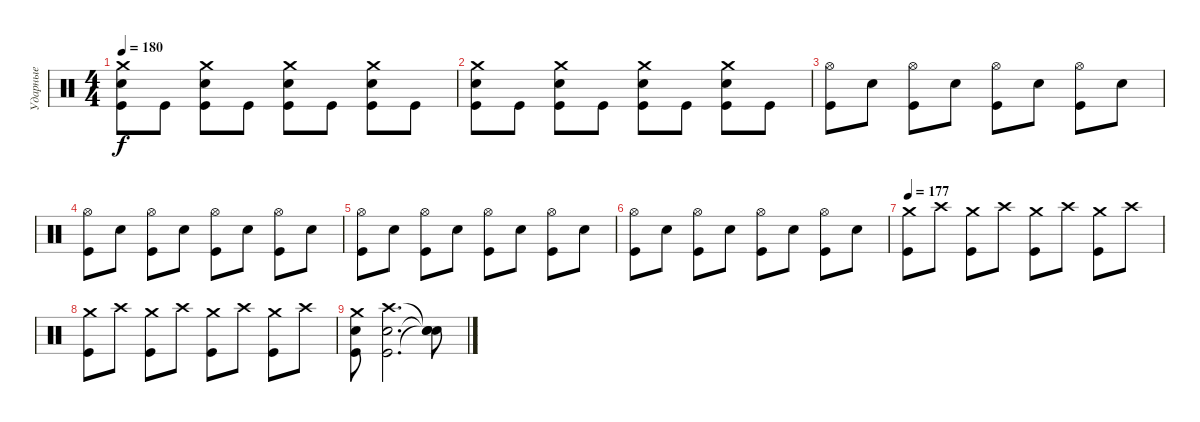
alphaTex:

\track ("Ударные" "Ударные") {instrument percussion}
\staff {score}
\articulation defaults
\ts (4 4)
\tempo 180
\clef neutral
\ks c
("Crash medium (hit)" "Snare (hit) 2" "Kick (hit)").8{dy f} "Kick (hit)".8 ("Crash medium (hit)" "Snare (hit) 2" "Kick (hit)").8 "Kick (hit)".8 ("Crash medium (hit)" "Snare (hit) 2" "Kick (hit)").8 "Kick (hit)".8 ("Crash medium (hit)" "Snare (hit) 2" "Kick (hit)").8 "Kick (hit)".8 |
("Crash medium (hit)" "Snare (hit) 2" "Kick (hit)").8 "Kick (hit)".8 ("Crash medium (hit)" "Snare (hit) 2" "Kick (hit)").8 "Kick (hit)".8 ("Crash medium (hit)" "Snare (hit) 2" "Kick (hit)").8 "Kick (hit)".8 ("Crash medium (hit)" "Snare (hit) 2" "Kick (hit)").8 "Kick (hit)".8 |
("Hi-Hat (open)" "Kick (hit)").8 "Snare (hit) 2".8 ("Hi-Hat (open)" "Kick (hit)").8 "Snare (hit) 2".8 ("Hi-Hat (open)" "Kick (hit)").8 "Snare (hit) 2".8 ("Hi-Hat (open)" "Kick (hit)").8 "Snare (hit) 2".8 |
("Hi-Hat (open)" "Kick (hit)").8 "Snare (hit) 2".8 ("Hi-Hat (open)" "Kick (hit)").8 "Snare (hit) 2".8 ("Hi-Hat (open)" "Kick (hit)").8 "Snare (hit) 2".8 ("Hi-Hat (open)" "Kick (hit)").8 "Snare (hit) 2".8 |
("Hi-Hat (open)" "Kick (hit)").8 "Snare (hit) 2".8 ("Hi-Hat (open)" "Kick (hit)").8 "Snare (hit) 2".8 ("Hi-Hat (open)" "Kick (hit)").8 "Snare (hit) 2".8 ("Hi-Hat (open)" "Kick (hit)").8 "Snare (hit) 2".8 |
("Hi-Hat (open)" "Kick (hit)").8 "Snare (hit) 2".8 ("Hi-Hat (open)" "Kick (hit)").8 "Snare (hit) 2".8 ("Hi-Hat (open)" "Kick (hit)").8 "Snare (hit) 2".8 ("Hi-Hat (open)" "Kick (hit)").8 "Snare (hit) 2".8 |
\tempo 177
("Crash medium (hit)" "Kick (hit)").8 "Crash high (hit)".8 ("Crash medium (hit)" "Kick (hit)").8 "Crash high (hit)".8 ("Crash medium (hit)" "Kick (hit)").8 "Crash high (hit)".8 ("Crash medium (hit)" "Kick (hit)").8 "Crash high (hit)".8 |
("Crash medium (hit)" "Kick (hit)").8 "Crash high (hit)".8 ("Crash medium (hit)" "Kick (hit)").8 "Crash high (hit)".8 ("Crash medium (hit)" "Kick (hit)").8 "Crash high (hit)".8 ("Crash medium (hit)" "Kick (hit)").8 "Crash high (hit)".8 |
("Crash medium (hit)" "Snare (hit) 2" "Kick (hit)").8 ("Crash high (hit)" "Snare (hit) 2" "Kick (hit)").2{d} ("Snare (hit)"{t} "Snare (hit)"{t} "Snare (hit)"{t}).8
